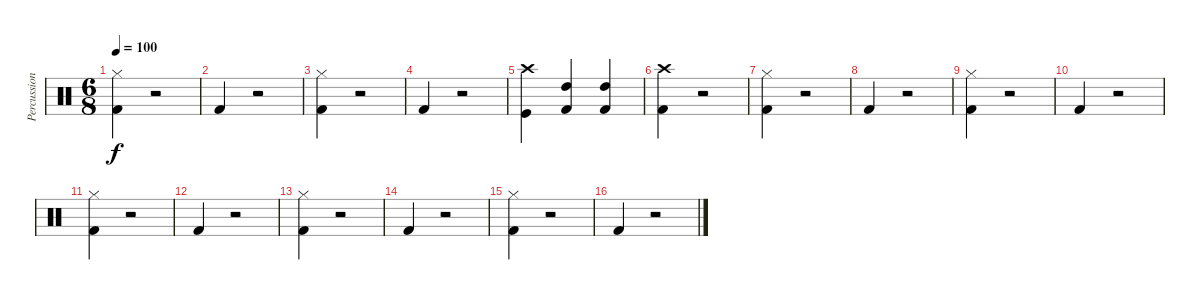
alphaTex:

\track ("Percussion" "Percussion") {instrument percussion}
\staff {score}
\articulation defaults
\ts (6 8)
\tempo 100
\clef neutral
\ks c
("Kick (hit) 2" "Hi-Hat (closed)").4{dy f} r.2 |
"Kick (hit) 2".4 r.2 |
("Kick (hit) 2" "Hi-Hat (closed)").4 r.2 |
"Kick (hit) 2".4 r.2 |
("Kick (hit)" "Crash high (hit)").4 ("Kick (hit) 2" "High Tom (hit)").4 ("Kick (hit) 2" "High Tom (hit)").4 |
("Kick (hit) 2" "Crash high (hit)").4 r.2 |
("Kick (hit) 2" "Hi-Hat (closed)").4 r.2 |
"Kick (hit) 2".4 r.2 |
("Kick (hit) 2" "Hi-Hat (closed)").4 r.2 |
"Kick (hit) 2".4 r.2 |
("Kick (hit) 2" "Hi-Hat (closed)").4 r.2 |
"Kick (hit) 2".4 r.2 |
("Kick (hit) 2" "Hi-Hat (closed)").4 r.2 |
"Kick (hit) 2".4 r.2 |
("Kick (hit) 2" "Hi-Hat (closed)").4 r.2 |
"Kick (hit) 2".4 r.2
